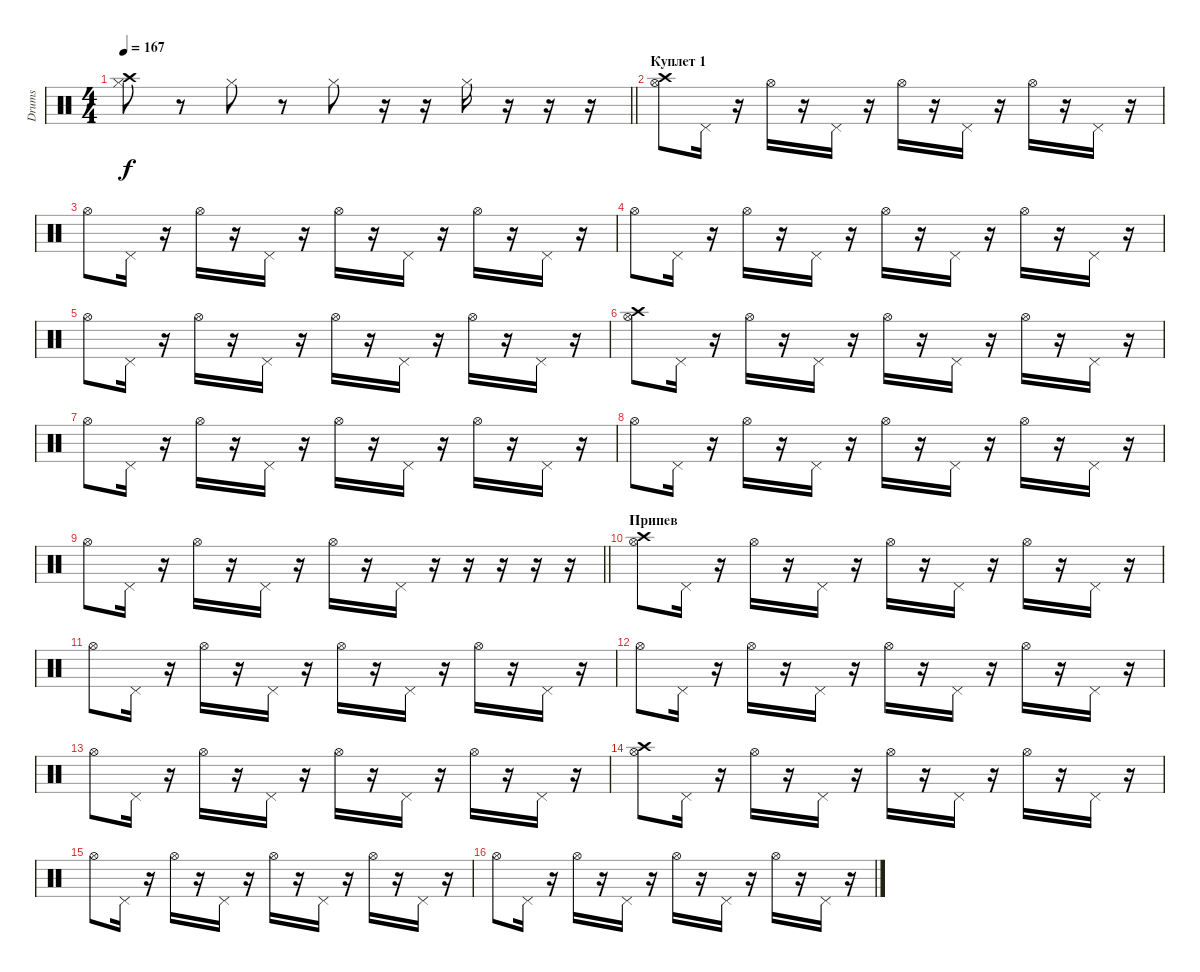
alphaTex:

\track ("Drums" "Drums") {instrument percussion}
\staff {score}
\articulation defaults
\ts (4 4)
\tempo 167
\clef neutral
\barLineRight lightlight
\ks c
("Crash high (hit)" "Hi-Hat (closed)").8{dy f} r.8 "Hi-Hat (closed)".8 r.8 "Hi-Hat (closed)".8 r.16 r.16 "Hi-Hat (closed)".16 r.16 r.16 r.16 |
\section ("" "Куплет 1")
("Crash high (hit)" "Hi-Hat (open)").8 "Pedal Hi-Hat (hit)".16 r.16 "Hi-Hat (open)".16 r.16 "Pedal Hi-Hat (hit)".16 r.16 "Hi-Hat (open)".16 r.16 "Pedal Hi-Hat (hit)".16 r.16 "Hi-Hat (open)".16 r.16 "Pedal Hi-Hat (hit)".16 r.16 |
"Hi-Hat (open)".8 "Pedal Hi-Hat (hit)".16 r.16 "Hi-Hat (open)".16 r.16 "Pedal Hi-Hat (hit)".16 r.16 "Hi-Hat (open)".16 r.16 "Pedal Hi-Hat (hit)".16 r.16 "Hi-Hat (open)".16 r.16 "Pedal Hi-Hat (hit)".16 r.16 |
"Hi-Hat (open)".8 "Pedal Hi-Hat (hit)".16 r.16 "Hi-Hat (open)".16 r.16 "Pedal Hi-Hat (hit)".16 r.16 "Hi-Hat (open)".16 r.16 "Pedal Hi-Hat (hit)".16 r.16 "Hi-Hat (open)".16 r.16 "Pedal Hi-Hat (hit)".16 r.16 |
"Hi-Hat (open)".8 "Pedal Hi-Hat (hit)".16 r.16 "Hi-Hat (open)".16 r.16 "Pedal Hi-Hat (hit)".16 r.16 "Hi-Hat (open)".16 r.16 "Pedal Hi-Hat (hit)".16 r.16 "Hi-Hat (open)".16 r.16 "Pedal Hi-Hat (hit)".16 r.16 |
("Crash high (hit)" "Hi-Hat (open)").8 "Pedal Hi-Hat (hit)".16 r.16 "Hi-Hat (open)".16 r.16 "Pedal Hi-Hat (hit)".16 r.16 "Hi-Hat (open)".16 r.16 "Pedal Hi-Hat (hit)".16 r.16 "Hi-Hat (open)".16 r.16 "Pedal Hi-Hat (hit)".16 r.16 |
"Hi-Hat (open)".8 "Pedal Hi-Hat (hit)".16 r.16 "Hi-Hat (open)".16 r.16 "Pedal Hi-Hat (hit)".16 r.16 "Hi-Hat (open)".16 r.16 "Pedal Hi-Hat (hit)".16 r.16 "Hi-Hat (open)".16 r.16 "Pedal Hi-Hat (hit)".16 r.16 |
"Hi-Hat (open)".8 "Pedal Hi-Hat (hit)".16 r.16 "Hi-Hat (open)".16 r.16 "Pedal Hi-Hat (hit)".16 r.16 "Hi-Hat (open)".16 r.16 "Pedal Hi-Hat (hit)".16 r.16 "Hi-Hat (open)".16 r.16 "Pedal Hi-Hat (hit)".16 r.16 |
\barLineRight lightlight "Hi-Hat (open)".8 "Pedal Hi-Hat (hit)".16
r.16 "Hi-Hat (open)".16 r.16 "Pedal Hi-Hat (hit)".16 r.16 "Hi-Hat (open)".16 r.16 "Pedal Hi-Hat (hit)".16 r.16 r.16 r.16 r.16 r.16 |
\section ("" "Припев")
("Crash high (hit)" "Hi-Hat (open)").8 "Pedal Hi-Hat (hit)".16 r.16 "Hi-Hat (open)".16 r.16 "Pedal Hi-Hat (hit)".16 r.16 "Hi-Hat (open)".16 r.16 "Pedal Hi-Hat (hit)".16 r.16 "Hi-Hat (open)".16 r.16 "Pedal Hi-Hat (hit)".16 r.16 |
"Hi-Hat (open)".8 "Pedal Hi-Hat (hit)".16 r.16 "Hi-Hat (open)".16 r.16 "Pedal Hi-Hat (hit)".16 r.16 "Hi-Hat (open)".16 r.16 "Pedal Hi-Hat (hit)".16 r.16 "Hi-Hat (open)".16 r.16 "Pedal Hi-Hat (hit)".16 r.16 |
"Hi-Hat (open)".8 "Pedal Hi-Hat (hit)".16 r.16 "Hi-Hat (open)".16 r.16 "Pedal Hi-Hat (hit)".16 r.16 "Hi-Hat (open)".16 r.16 "Pedal Hi-Hat (hit)".16 r.16 "Hi-Hat (open)".16 r.16 "Pedal Hi-Hat (hit)".16 r.16 |
"Hi-Hat (open)".8 "Pedal Hi-Hat (hit)".16 r.16 "Hi-Hat (open)".16 r.16 "Pedal Hi-Hat (hit)".16 r.16 "Hi-Hat (open)".16 r.16 "Pedal Hi-Hat (hit)".16 r.16 "Hi-Hat (open)".16 r.16 "Pedal Hi-Hat (hit)".16 r.16 |
("Crash high (hit)" "Hi-Hat (open)").8 "Pedal Hi-Hat (hit)".16 r.16 "Hi-Hat (open)".16 r.16 "Pedal Hi-Hat (hit)".16 r.16 "Hi-Hat (open)".16 r.16 "Pedal Hi-Hat (hit)".16 r.16 "Hi-Hat (open)".16 r.16 "Pedal Hi-Hat (hit)".16 r.16 |
"Hi-Hat (open)".8 "Pedal Hi-Hat (hit)".16 r.16 "Hi-Hat (open)".16 r.16 "Pedal Hi-Hat (hit)".16 r.16 "Hi-Hat (open)".16 r.16 "Pedal Hi-Hat (hit)".16 r.16 "Hi-Hat (open)".16 r.16 "Pedal Hi-Hat (hit)".16 r.16 |
"Hi-Hat (open)".8 "Pedal Hi-Hat (hit)".16 r.16 "Hi-Hat (open)".16 r.16 "Pedal Hi-Hat (hit)".16 r.16 "Hi-Hat (open)".16 r.16 "Pedal Hi-Hat (hit)".16 r.16 "Hi-Hat (open)".16 r.16 "Pedal Hi-Hat (hit)".16 r.16
